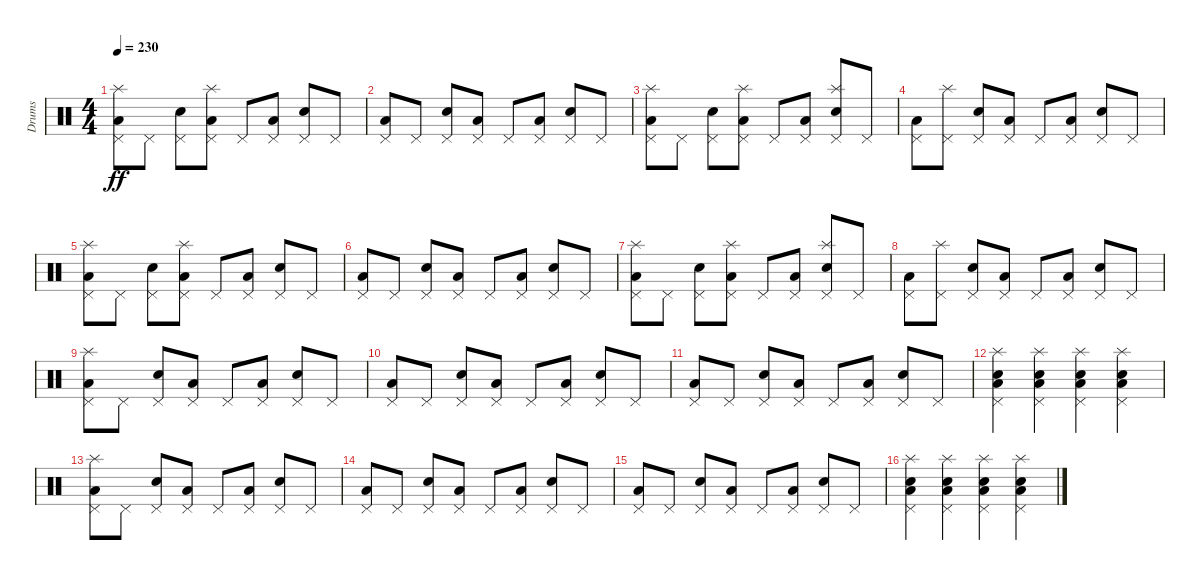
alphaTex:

\track ("Drums" "Drums") {instrument percussion}
\staff {score}
\articulation defaults
\ts (4 4)
\tempo 230
\clef neutral
\ks c
("Low Floor Tom (hit)" "Pedal Hi-Hat (hit)" "Splash (hit)").8{dy ff} "Pedal Hi-Hat (hit)".8 ("Electric Snare (hit)" "Pedal Hi-Hat (hit)").8 ("Low Floor Tom (hit)" "Pedal Hi-Hat (hit)" "Splash (hit)").8 "Pedal Hi-Hat (hit)".8 ("Low Floor Tom (hit)" "Pedal Hi-Hat (hit)").8 ("Electric Snare (hit)" "Pedal Hi-Hat (hit)").8 "Pedal Hi-Hat (hit)".8 |
("Low Floor Tom (hit)" "Pedal Hi-Hat (hit)").8 "Pedal Hi-Hat (hit)".8 ("Electric Snare (hit)" "Pedal Hi-Hat (hit)").8 ("Low Floor Tom (hit)" "Pedal Hi-Hat (hit)").8 "Pedal Hi-Hat (hit)".8 ("Low Floor Tom (hit)" "Pedal Hi-Hat (hit)").8 ("Electric Snare (hit)" "Pedal Hi-Hat (hit)").8 "Pedal Hi-Hat (hit)".8 |
("Low Floor Tom (hit)" "Pedal Hi-Hat (hit)" "Splash (hit)").8 "Pedal Hi-Hat (hit)".8 ("Electric Snare (hit)" "Pedal Hi-Hat (hit)").8 ("Low Floor Tom (hit)" "Pedal Hi-Hat (hit)" "Splash (hit)").8 "Pedal Hi-Hat (hit)".8 ("Low Floor Tom (hit)" "Pedal Hi-Hat (hit)").8 ("Electric Snare (hit)" "Pedal Hi-Hat (hit)" "Splash (hit)").8 "Pedal Hi-Hat (hit)".8 |
("Low Floor Tom (hit)" "Pedal Hi-Hat (hit)").8 ("Pedal Hi-Hat (hit)" "Splash (hit)").8 ("Electric Snare (hit)" "Pedal Hi-Hat (hit)").8 ("Low Floor Tom (hit)" "Pedal Hi-Hat (hit)").8 "Pedal Hi-Hat (hit)".8 ("Low Floor Tom (hit)" "Pedal Hi-Hat (hit)").8 ("Electric Snare (hit)" "Pedal Hi-Hat (hit)").8 "Pedal Hi-Hat (hit)".8 |
("Low Floor Tom (hit)" "Pedal Hi-Hat (hit)" "Splash (hit)").8 "Pedal Hi-Hat (hit)".8 ("Electric Snare (hit)" "Pedal Hi-Hat (hit)").8 ("Low Floor Tom (hit)" "Pedal Hi-Hat (hit)" "Splash (hit)").8 "Pedal Hi-Hat (hit)".8 ("Low Floor Tom (hit)" "Pedal Hi-Hat (hit)").8 ("Electric Snare (hit)" "Pedal Hi-Hat (hit)").8 "Pedal Hi-Hat (hit)".8 |
("Low Floor Tom (hit)" "Pedal Hi-Hat (hit)").8 "Pedal Hi-Hat (hit)".8 ("Electric Snare (hit)" "Pedal Hi-Hat (hit)").8 ("Low Floor Tom (hit)" "Pedal Hi-Hat (hit)").8 "Pedal Hi-Hat (hit)".8 ("Low Floor Tom (hit)" "Pedal Hi-Hat (hit)").8 ("Electric Snare (hit)" "Pedal Hi-Hat (hit)").8 "Pedal Hi-Hat (hit)".8 |
("Low Floor Tom (hit)" "Pedal Hi-Hat (hit)" "Splash (hit)").8 "Pedal Hi-Hat (hit)".8 ("Electric Snare (hit)" "Pedal Hi-Hat (hit)").8 ("Low Floor Tom (hit)" "Pedal Hi-Hat (hit)" "Splash (hit)").8 "Pedal Hi-Hat (hit)".8 ("Low Floor Tom (hit)" "Pedal Hi-Hat (hit)").8 ("Electric Snare (hit)" "Pedal Hi-Hat (hit)" "Splash (hit)").8 "Pedal Hi-Hat (hit)".8 |
("Low Floor Tom (hit)" "Pedal Hi-Hat (hit)").8 ("Pedal Hi-Hat (hit)" "Splash (hit)").8 ("Electric Snare (hit)" "Pedal Hi-Hat (hit)").8 ("Low Floor Tom (hit)" "Pedal Hi-Hat (hit)").8 "Pedal Hi-Hat (hit)".8 ("Low Floor Tom (hit)" "Pedal Hi-Hat (hit)").8 ("Electric Snare (hit)" "Pedal Hi-Hat (hit)").8 "Pedal Hi-Hat (hit)".8 |
("Low Floor Tom (hit)" "Pedal Hi-Hat (hit)" "Splash (hit)").8 "Pedal Hi-Hat (hit)".8 ("Electric Snare (hit)" "Pedal Hi-Hat (hit)").8 ("Low Floor Tom (hit)" "Pedal Hi-Hat (hit)").8 "Pedal Hi-Hat (hit)".8 ("Low Floor Tom (hit)" "Pedal Hi-Hat (hit)").8 ("Electric Snare (hit)" "Pedal Hi-Hat (hit)").8 "Pedal Hi-Hat (hit)".8 |
("Low Floor Tom (hit)" "Pedal Hi-Hat (hit)").8 "Pedal Hi-Hat (hit)".8 ("Electric Snare (hit)" "Pedal Hi-Hat (hit)").8 ("Low Floor Tom (hit)" "Pedal Hi-Hat (hit)").8 "Pedal Hi-Hat (hit)".8 ("Low Floor Tom (hit)" "Pedal Hi-Hat (hit)").8 ("Electric Snare (hit)" "Pedal Hi-Hat (hit)").8 "Pedal Hi-Hat (hit)".8 |
("Low Floor Tom (hit)" "Pedal Hi-Hat (hit)").8 "Pedal Hi-Hat (hit)".8 ("Electric Snare (hit)" "Pedal Hi-Hat (hit)").8 ("Low Floor Tom (hit)" "Pedal Hi-Hat (hit)").8 "Pedal Hi-Hat (hit)".8 ("Low Floor Tom (hit)" "Pedal Hi-Hat (hit)").8 ("Electric Snare (hit)" "Pedal Hi-Hat (hit)").8 "Pedal Hi-Hat (hit)".8 |
("Electric Snare (hit)" "Low Floor Tom (hit)" "Pedal Hi-Hat (hit)" "Splash (hit)").4 ("Electric Snare (hit)" "Low Floor Tom (hit)" "Pedal Hi-Hat (hit)" "Splash (hit)").4 ("Electric Snare (hit)" "Low Floor Tom (hit)" "Pedal Hi-Hat (hit)" "Splash (hit)").4 ("Electric Snare (hit)" "Low Floor Tom (hit)" "Pedal Hi-Hat (hit)" "Splash (hit)").4 |
("Low Floor Tom (hit)" "Pedal Hi-Hat (hit)" "Splash (hit)").8 "Pedal Hi-Hat (hit)".8 ("Electric Snare (hit)" "Pedal Hi-Hat (hit)").8 ("Low Floor Tom (hit)" "Pedal Hi-Hat (hit)").8 "Pedal Hi-Hat (hit)".8 ("Low Floor Tom (hit)" "Pedal Hi-Hat (hit)").8 ("Electric Snare (hit)" "Pedal Hi-Hat (hit)").8 "Pedal Hi-Hat (hit)".8 |
("Low Floor Tom (hit)" "Pedal Hi-Hat (hit)").8 "Pedal Hi-Hat (hit)".8 ("Electric Snare (hit)" "Pedal Hi-Hat (hit)").8 ("Low Floor Tom (hit)" "Pedal Hi-Hat (hit)").8 "Pedal Hi-Hat (hit)".8 ("Low Floor Tom (hit)" "Pedal Hi-Hat (hit)").8 ("Electric Snare (hit)" "Pedal Hi-Hat (hit)").8 "Pedal Hi-Hat (hit)".8 |
("Low Floor Tom (hit)" "Pedal Hi-Hat (hit)").8 "Pedal Hi-Hat (hit)".8 ("Electric Snare (hit)" "Pedal Hi-Hat (hit)").8 ("Low Floor Tom (hit)" "Pedal Hi-Hat (hit)").8 "Pedal Hi-Hat (hit)".8 ("Low Floor Tom (hit)" "Pedal Hi-Hat (hit)").8 ("Electric Snare (hit)" "Pedal Hi-Hat (hit)").8 "Pedal Hi-Hat (hit)".8 |
("Electric Snare (hit)" "Low Floor Tom (hit)" "Pedal Hi-Hat (hit)" "Splash (hit)").4 ("Electric Snare (hit)" "Low Floor Tom (hit)" "Pedal Hi-Hat (hit)" "Splash (hit)").4 ("Electric Snare (hit)" "Low Floor Tom (hit)" "Pedal Hi-Hat (hit)" "Splash (hit)").4 ("Electric Snare (hit)" "Low Floor Tom (hit)" "Pedal Hi-Hat (hit)" "Splash (hit)").4
